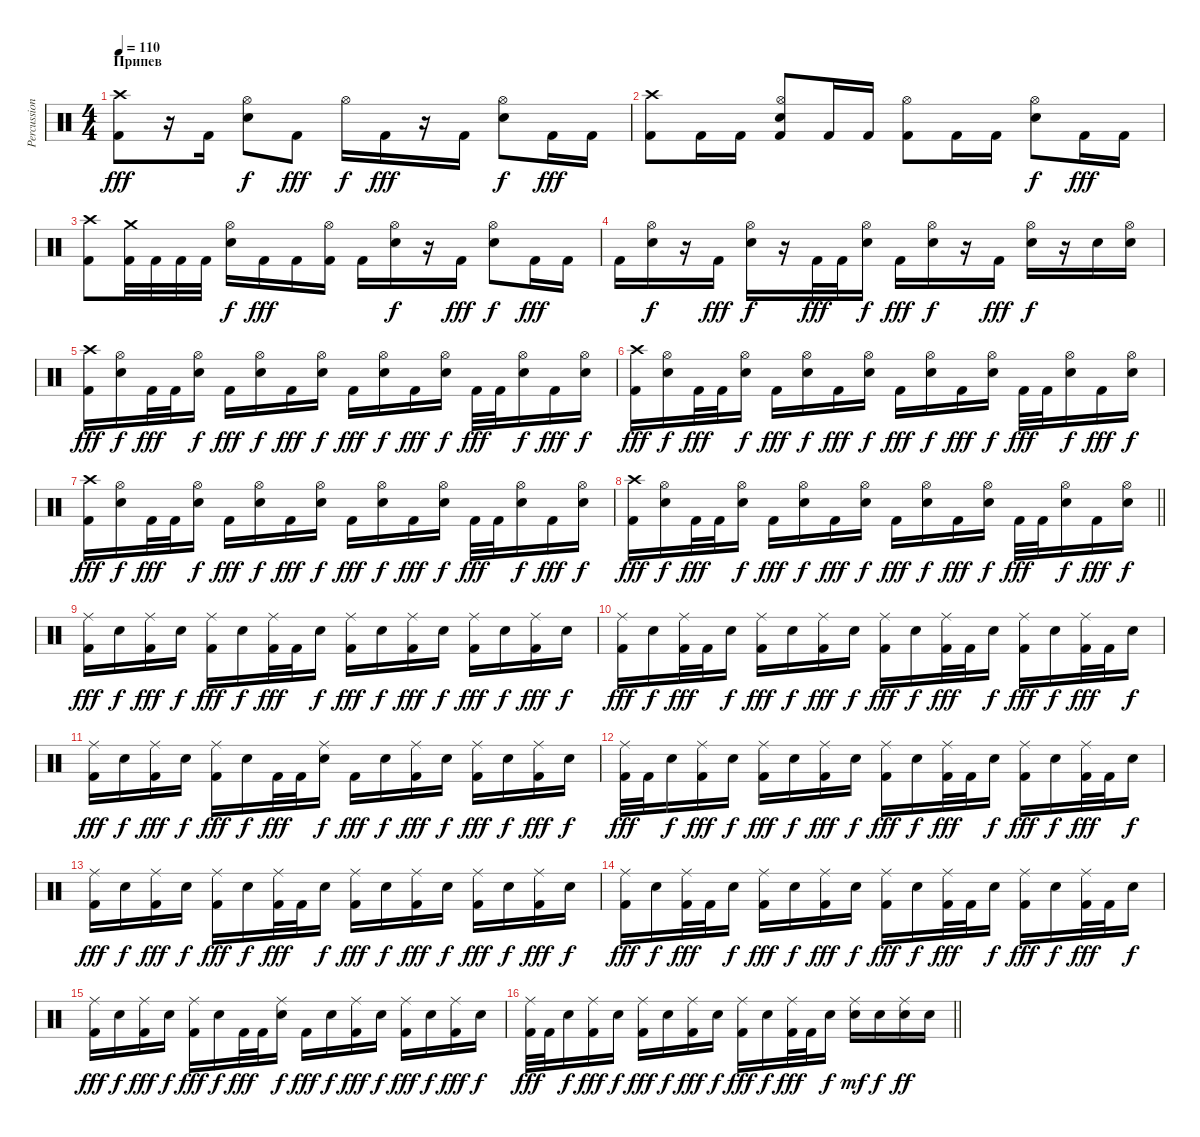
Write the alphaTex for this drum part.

\track ("Percussion" "Percussion") {instrument percussion}
\staff {score}
\articulation defaults
\ts (4 4)
\section ("" "Припев")
\tempo 110
\clef neutral
\ks c
("Crash high (hit)" "Kick (hit) 2").8{dy fff} r.16 "Kick (hit) 2".16 ("Hi-Hat (open)" "Snare (hit) 2").8{dy f} "Kick (hit) 2".8{dy fff} "Hi-Hat (open)".16{dy f} "Kick (hit) 2".16{dy fff} r.16 "Kick (hit) 2".16 ("Hi-Hat (open)" "Snare (hit) 2").8{dy f} "Kick (hit) 2".16{dy fff} "Kick (hit) 2".16 |
("Crash high (hit)" "Kick (hit) 2").8 "Kick (hit) 2".16 "Kick (hit) 2".16 ("Hi-Hat (open)" "Snare (hit) 2" "Kick (hit) 2").8 "Kick (hit) 2".16 "Kick (hit) 2".16 ("Hi-Hat (open)" "Kick (hit) 2").8 "Kick (hit) 2".16 "Kick (hit) 2".16 ("Hi-Hat (open)" "Snare (hit) 2").8{dy f} "Kick (hit) 2".16{dy fff} "Kick (hit) 2".16 |
("Crash high (hit)" "Kick (hit) 2").8 ("Crash medium (hit)" "Kick (hit) 2").32 "Kick (hit) 2".32 "Kick (hit) 2".32 "Kick (hit) 2".32 ("Hi-Hat (open)" "Snare (hit) 2").16{dy f} "Kick (hit) 2".16{dy fff} "Kick (hit) 2".16 ("Hi-Hat (open)" "Kick (hit) 2").16 "Kick (hit) 2".16 ("Hi-Hat (open)" "Snare (hit) 2").16{dy f} r.16 "Kick (hit) 2".16{dy fff} ("Hi-Hat (open)" "Snare (hit) 2").8{dy f} "Kick (hit) 2".16{dy fff} "Kick (hit) 2".16 |
"Kick (hit) 2".16 ("Hi-Hat (open)" "Snare (hit) 2").16{dy f} r.16 "Kick (hit) 2".16{dy fff} ("Hi-Hat (open)" "Snare (hit) 2").16{dy f} r.16 "Kick (hit) 2".32{dy fff} "Kick (hit) 2".32 ("Hi-Hat (open)" "Snare (hit) 2").16{dy f} "Kick (hit) 2".16{dy fff} ("Hi-Hat (open)" "Snare (hit) 2").16{dy f} r.16 "Kick (hit) 2".16{dy fff} ("Hi-Hat (open)" "Snare (hit) 2").16{dy f} r.16 "Snare (hit) 2".16 ("Hi-Hat (open)" "Snare (hit) 2").16 |
("Crash high (hit)" "Kick (hit) 2").16{dy fff} ("Hi-Hat (open)" "Snare (hit) 2").16{dy f} "Kick (hit) 2".32{dy fff} "Kick (hit) 2".32 ("Hi-Hat (open)" "Snare (hit) 2").16{dy f} "Kick (hit) 2".16{dy fff} ("Hi-Hat (open)" "Snare (hit) 2").16{dy f} "Kick (hit) 2".16{dy fff} ("Hi-Hat (open)" "Snare (hit) 2").16{dy f} "Kick (hit) 2".16{dy fff} ("Hi-Hat (open)" "Snare (hit) 2").16{dy f} "Kick (hit) 2".16{dy fff} ("Hi-Hat (open)" "Snare (hit) 2").16{dy f} "Kick (hit) 2".32{dy fff} "Kick (hit) 2".32 ("Hi-Hat (open)" "Snare (hit) 2").16{dy f} "Kick (hit) 2".16{dy fff} ("Hi-Hat (open)" "Snare (hit) 2").16{dy f} |
("Crash high (hit)" "Kick (hit) 2").16{dy fff} ("Hi-Hat (open)" "Snare (hit) 2").16{dy f} "Kick (hit) 2".32{dy fff} "Kick (hit) 2".32 ("Hi-Hat (open)" "Snare (hit) 2").16{dy f} "Kick (hit) 2".16{dy fff} ("Hi-Hat (open)" "Snare (hit) 2").16{dy f} "Kick (hit) 2".16{dy fff} ("Hi-Hat (open)" "Snare (hit) 2").16{dy f} "Kick (hit) 2".16{dy fff} ("Hi-Hat (open)" "Snare (hit) 2").16{dy f} "Kick (hit) 2".16{dy fff} ("Hi-Hat (open)" "Snare (hit) 2").16{dy f} "Kick (hit) 2".32{dy fff} "Kick (hit) 2".32 ("Hi-Hat (open)" "Snare (hit) 2").16{dy f} "Kick (hit) 2".16{dy fff} ("Hi-Hat (open)" "Snare (hit) 2").16{dy f} |
("Crash high (hit)" "Kick (hit) 2").16{dy fff} ("Hi-Hat (open)" "Snare (hit) 2").16{dy f} "Kick (hit) 2".32{dy fff} "Kick (hit) 2".32 ("Hi-Hat (open)" "Snare (hit) 2").16{dy f} "Kick (hit) 2".16{dy fff} ("Hi-Hat (open)" "Snare (hit) 2").16{dy f} "Kick (hit) 2".16{dy fff} ("Hi-Hat (open)" "Snare (hit) 2").16{dy f} "Kick (hit) 2".16{dy fff} ("Hi-Hat (open)" "Snare (hit) 2").16{dy f} "Kick (hit) 2".16{dy fff} ("Hi-Hat (open)" "Snare (hit) 2").16{dy f} "Kick (hit) 2".32{dy fff} "Kick (hit) 2".32 ("Hi-Hat (open)" "Snare (hit) 2").16{dy f} "Kick (hit) 2".16{dy fff} ("Hi-Hat (open)" "Snare (hit) 2").16{dy f} |
\barLineRight lightlight
("Crash high (hit)" "Kick (hit) 2").16{dy fff} ("Hi-Hat (open)" "Snare (hit) 2").16{dy f} "Kick (hit) 2".32{dy fff} "Kick (hit) 2".32 ("Hi-Hat (open)" "Snare (hit) 2").16{dy f} "Kick (hit) 2".16{dy fff} ("Hi-Hat (open)" "Snare (hit) 2").16{dy f} "Kick (hit) 2".16{dy fff} ("Hi-Hat (open)" "Snare (hit) 2").16{dy f} "Kick (hit) 2".16{dy fff} ("Hi-Hat (open)" "Snare (hit) 2").16{dy f} "Kick (hit) 2".16{dy fff} ("Hi-Hat (open)" "Snare (hit) 2").16{dy f} "Kick (hit) 2".32{dy fff} "Kick (hit) 2".32 ("Hi-Hat (open)" "Snare (hit) 2").16{dy f} "Kick (hit) 2".16{dy fff} ("Hi-Hat (open)" "Snare (hit) 2").16{dy f} |
("Ride (middle)" "Kick (hit) 2").16{dy fff} "Snare (hit) 2".16{dy f} ("Ride (middle)" "Kick (hit) 2").16{dy fff} "Snare (hit) 2".16{dy f} ("Ride (middle)" "Kick (hit) 2").16{dy fff} "Snare (hit) 2".16{dy f} ("Ride (middle)" "Kick (hit) 2").32{dy fff} "Kick (hit) 2".32 "Snare (hit) 2".16{dy f} ("Ride (middle)" "Kick (hit) 2").16{dy fff} "Snare (hit) 2".16{dy f} ("Ride (middle)" "Kick (hit) 2").16{dy fff} "Snare (hit) 2".16{dy f} ("Ride (middle)" "Kick (hit) 2").16{dy fff} "Snare (hit) 2".16{dy f} ("Ride (middle)" "Kick (hit) 2").16{dy fff} "Snare (hit) 2".16{dy f} |
("Ride (middle)" "Kick (hit) 2").16{dy fff} "Snare (hit) 2".16{dy f} ("Ride (middle)" "Kick (hit) 2").32{dy fff} "Kick (hit) 2".32 "Snare (hit) 2".16{dy f} ("Ride (middle)" "Kick (hit) 2").16{dy fff} "Snare (hit) 2".16{dy f} ("Ride (middle)" "Kick (hit) 2").16{dy fff} "Snare (hit) 2".16{dy f} ("Ride (middle)" "Kick (hit) 2").16{dy fff} "Snare (hit) 2".16{dy f} ("Ride (middle)" "Kick (hit) 2").32{dy fff} "Kick (hit) 2".32 "Snare (hit) 2".16{dy f} ("Ride (middle)" "Kick (hit) 2").16{dy fff} "Snare (hit) 2".16{dy f} ("Ride (middle)" "Kick (hit) 2").32{dy fff} "Kick (hit) 2".32 "Snare (hit) 2".16{dy f} |
("Ride (middle)" "Kick (hit) 2").16{dy fff} "Snare (hit) 2".16{dy f} ("Ride (middle)" "Kick (hit) 2").16{dy fff} "Snare (hit) 2".16{dy f} ("Ride (middle)" "Kick (hit) 2").16{dy fff} "Snare (hit) 2".16{dy f} "Kick (hit) 2".32{dy fff} "Kick (hit) 2".32 ("Ride (middle)" "Snare (hit) 2").16{dy f} "Kick (hit) 2".16{dy fff} "Snare (hit) 2".16{dy f} ("Ride (middle)" "Kick (hit) 2").16{dy fff} "Snare (hit) 2".16{dy f} ("Ride (middle)" "Kick (hit) 2").16{dy fff} "Snare (hit) 2".16{dy f} ("Ride (middle)" "Kick (hit) 2").16{dy fff} "Snare (hit) 2".16{dy f} |
("Ride (middle)" "Kick (hit) 2").32{dy fff} "Kick (hit) 2".32 "Snare (hit) 2".16{dy f} ("Ride (middle)" "Kick (hit) 2").16{dy fff} "Snare (hit) 2".16{dy f} ("Ride (middle)" "Kick (hit) 2").16{dy fff} "Snare (hit) 2".16{dy f} ("Ride (middle)" "Kick (hit) 2").16{dy fff} "Snare (hit) 2".16{dy f} ("Ride (middle)" "Kick (hit) 2").16{dy fff} "Snare (hit) 2".16{dy f} ("Ride (middle)" "Kick (hit) 2").32{dy fff} "Kick (hit) 2".32 "Snare (hit) 2".16{dy f} ("Ride (middle)" "Kick (hit) 2").16{dy fff} "Snare (hit) 2".16{dy f} ("Ride (middle)" "Kick (hit) 2").32{dy fff} "Kick (hit) 2".32 "Snare (hit) 2".16{dy f} |
("Ride (middle)" "Kick (hit) 2").16{dy fff} "Snare (hit) 2".16{dy f} ("Ride (middle)" "Kick (hit) 2").16{dy fff} "Snare (hit) 2".16{dy f} ("Ride (middle)" "Kick (hit) 2").16{dy fff} "Snare (hit) 2".16{dy f} ("Ride (middle)" "Kick (hit) 2").32{dy fff} "Kick (hit) 2".32 "Snare (hit) 2".16{dy f} ("Ride (middle)" "Kick (hit) 2").16{dy fff} "Snare (hit) 2".16{dy f} ("Ride (middle)" "Kick (hit) 2").16{dy fff} "Snare (hit) 2".16{dy f} ("Ride (middle)" "Kick (hit) 2").16{dy fff} "Snare (hit) 2".16{dy f} ("Ride (middle)" "Kick (hit) 2").16{dy fff} "Snare (hit) 2".16{dy f} |
("Ride (middle)" "Kick (hit) 2").16{dy fff} "Snare (hit) 2".16{dy f} ("Ride (middle)" "Kick (hit) 2").32{dy fff} "Kick (hit) 2".32 "Snare (hit) 2".16{dy f} ("Ride (middle)" "Kick (hit) 2").16{dy fff} "Snare (hit) 2".16{dy f} ("Ride (middle)" "Kick (hit) 2").16{dy fff} "Snare (hit) 2".16{dy f} ("Ride (middle)" "Kick (hit) 2").16{dy fff} "Snare (hit) 2".16{dy f} ("Ride (middle)" "Kick (hit) 2").32{dy fff} "Kick (hit) 2".32 "Snare (hit) 2".16{dy f} ("Ride (middle)" "Kick (hit) 2").16{dy fff} "Snare (hit) 2".16{dy f} ("Ride (middle)" "Kick (hit) 2").32{dy fff} "Kick (hit) 2".32 "Snare (hit) 2".16{dy f} |
("Ride (middle)" "Kick (hit) 2").16{dy fff} "Snare (hit) 2".16{dy f} ("Ride (middle)" "Kick (hit) 2").16{dy fff} "Snare (hit) 2".16{dy f} ("Ride (middle)" "Kick (hit) 2").16{dy fff} "Snare (hit) 2".16{dy f} "Kick (hit) 2".32{dy fff} "Kick (hit) 2".32 ("Ride (middle)" "Snare (hit) 2").16{dy f} "Kick (hit) 2".16{dy fff} "Snare (hit) 2".16{dy f} ("Ride (middle)" "Kick (hit) 2").16{dy fff} "Snare (hit) 2".16{dy f} ("Ride (middle)" "Kick (hit) 2").16{dy fff} "Snare (hit) 2".16{dy f} ("Ride (middle)" "Kick (hit) 2").16{dy fff} "Snare (hit) 2".16{dy f} |
\barLineRight lightlight
("Ride (middle)" "Kick (hit) 2").32{dy fff} "Kick (hit) 2".32 "Snare (hit) 2".16{dy f} ("Ride (middle)" "Kick (hit) 2").16{dy fff} "Snare (hit) 2".16{dy f} ("Ride (middle)" "Kick (hit) 2").16{dy fff} "Snare (hit) 2".16{dy f} ("Ride (middle)" "Kick (hit) 2").16{dy fff} "Snare (hit) 2".16{dy f} ("Ride (middle)" "Kick (hit) 2").16{dy fff} "Snare (hit) 2".16{dy f} ("Ride (middle)" "Kick (hit) 2").32{dy fff} "Kick (hit) 2".32 "Snare (hit) 2".16{dy f} ("Ride (middle)" "Snare (hit) 2").16{dy mf} "Snare (hit) 2".16{dy f} ("Ride (middle)" "Snare (hit) 2").16{dy ff} "Snare (hit) 2".16
